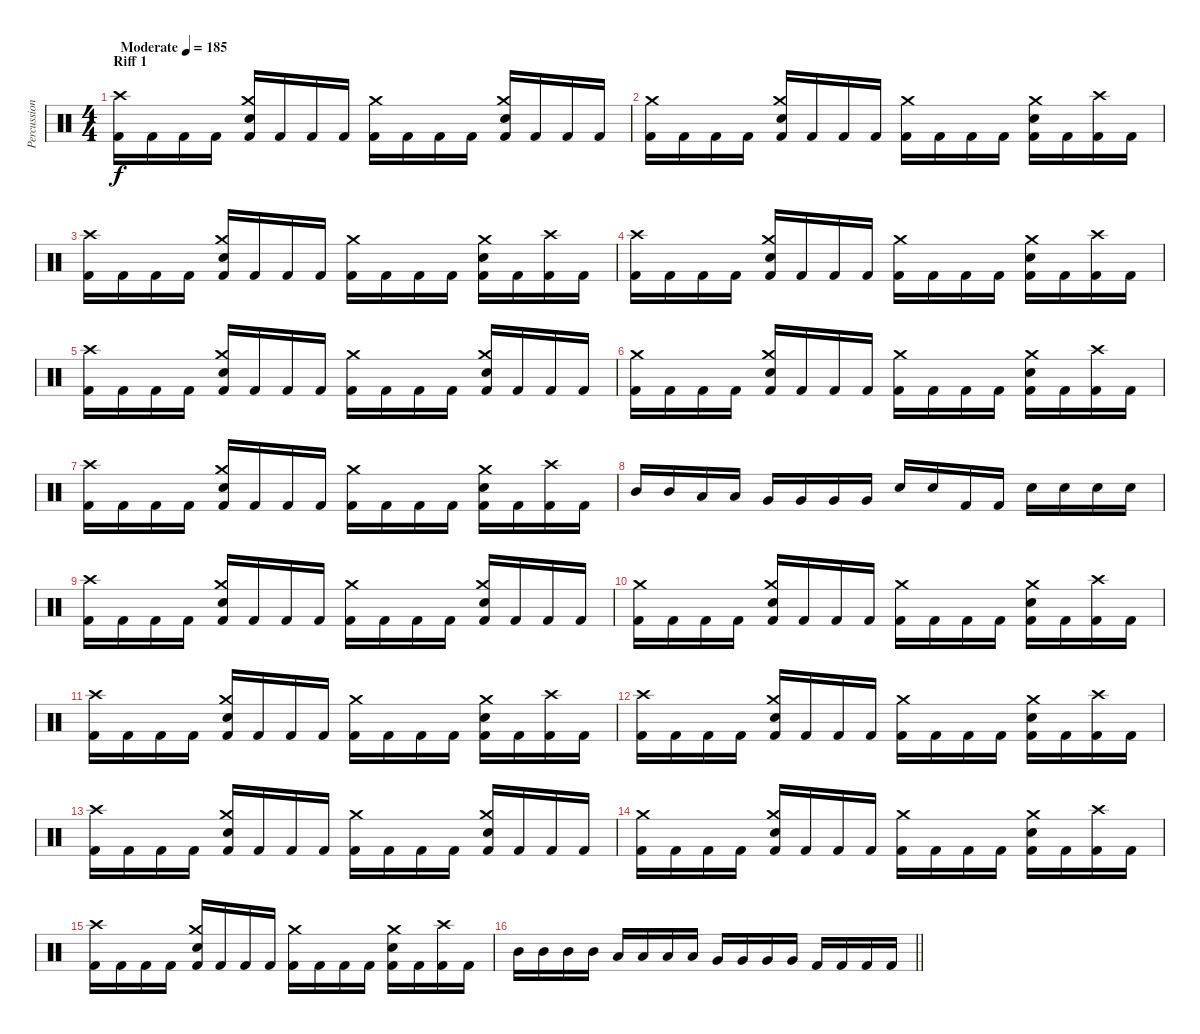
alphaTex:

\track ("Percussion" "Percussion") {instrument percussion}
\staff {score}
\articulation defaults
\ts (4 4)
\section ("" "Riff 1")
\tempo (185 "Moderate")
\clef neutral
\ks c
("Crash high (hit)" "Kick (hit) 2").16{dy f} "Kick (hit) 2".16 "Kick (hit) 2".16 "Kick (hit) 2".16 ("Crash medium (hit)" "Snare (hit) 2" "Kick (hit) 2").16 "Kick (hit) 2".16 "Kick (hit) 2".16 "Kick (hit) 2".16 ("Crash medium (hit)" "Kick (hit) 2").16 "Kick (hit) 2".16 "Kick (hit) 2".16 "Kick (hit) 2".16 ("Crash medium (hit)" "Snare (hit) 2" "Kick (hit) 2").16 "Kick (hit) 2".16 "Kick (hit) 2".16 "Kick (hit) 2".16 |
("Crash medium (hit)" "Kick (hit) 2").16 "Kick (hit) 2".16 "Kick (hit) 2".16 "Kick (hit) 2".16 ("Crash medium (hit)" "Snare (hit) 2" "Kick (hit) 2").16 "Kick (hit) 2".16 "Kick (hit) 2".16 "Kick (hit) 2".16 ("Crash medium (hit)" "Kick (hit) 2").16 "Kick (hit) 2".16 "Kick (hit) 2".16 "Kick (hit) 2".16 ("Crash medium (hit)" "Snare (hit) 2" "Kick (hit) 2").16 "Kick (hit) 2".16 ("Crash high (hit)" "Kick (hit) 2").16 "Kick (hit) 2".16 |
("Crash high (hit)" "Kick (hit) 2").16 "Kick (hit) 2".16 "Kick (hit) 2".16 "Kick (hit) 2".16 ("Crash medium (hit)" "Snare (hit) 2" "Kick (hit) 2").16 "Kick (hit) 2".16 "Kick (hit) 2".16 "Kick (hit) 2".16 ("Crash medium (hit)" "Kick (hit) 2").16 "Kick (hit) 2".16 "Kick (hit) 2".16 "Kick (hit) 2".16 ("Crash medium (hit)" "Snare (hit) 2" "Kick (hit) 2").16 "Kick (hit) 2".16 ("Crash high (hit)" "Kick (hit) 2").16 "Kick (hit) 2".16 |
("Crash high (hit)" "Kick (hit) 2").16 "Kick (hit) 2".16 "Kick (hit) 2".16 "Kick (hit) 2".16 ("Crash medium (hit)" "Snare (hit) 2" "Kick (hit) 2").16 "Kick (hit) 2".16 "Kick (hit) 2".16 "Kick (hit) 2".16 ("Crash medium (hit)" "Kick (hit) 2").16 "Kick (hit) 2".16 "Kick (hit) 2".16 "Kick (hit) 2".16 ("Crash medium (hit)" "Snare (hit) 2" "Kick (hit) 2").16 "Kick (hit) 2".16 ("Crash high (hit)" "Kick (hit) 2").16 "Kick (hit) 2".16 |
("Crash high (hit)" "Kick (hit) 2").16 "Kick (hit) 2".16 "Kick (hit) 2".16 "Kick (hit) 2".16 ("Crash medium (hit)" "Snare (hit) 2" "Kick (hit) 2").16 "Kick (hit) 2".16 "Kick (hit) 2".16 "Kick (hit) 2".16 ("Crash medium (hit)" "Kick (hit) 2").16 "Kick (hit) 2".16 "Kick (hit) 2".16 "Kick (hit) 2".16 ("Crash medium (hit)" "Snare (hit) 2" "Kick (hit) 2").16 "Kick (hit) 2".16 "Kick (hit) 2".16 "Kick (hit) 2".16 |
("Crash medium (hit)" "Kick (hit) 2").16 "Kick (hit) 2".16 "Kick (hit) 2".16 "Kick (hit) 2".16 ("Crash medium (hit)" "Snare (hit) 2" "Kick (hit) 2").16 "Kick (hit) 2".16 "Kick (hit) 2".16 "Kick (hit) 2".16 ("Crash medium (hit)" "Kick (hit) 2").16 "Kick (hit) 2".16 "Kick (hit) 2".16 "Kick (hit) 2".16 ("Crash medium (hit)" "Snare (hit) 2" "Kick (hit) 2").16 "Kick (hit) 2".16 ("Crash high (hit)" "Kick (hit) 2").16 "Kick (hit) 2".16 |
("Crash high (hit)" "Kick (hit) 2").16 "Kick (hit) 2".16 "Kick (hit) 2".16 "Kick (hit) 2".16 ("Crash medium (hit)" "Snare (hit) 2" "Kick (hit) 2").16 "Kick (hit) 2".16 "Kick (hit) 2".16 "Kick (hit) 2".16 ("Crash medium (hit)" "Kick (hit) 2").16 "Kick (hit) 2".16 "Kick (hit) 2".16 "Kick (hit) 2".16 ("Crash medium (hit)" "Snare (hit) 2" "Kick (hit) 2").16 "Kick (hit) 2".16 ("Crash high (hit)" "Kick (hit) 2").16 "Kick (hit) 2".16 |
"Mid Tom (hit)".16 "Mid Tom (hit)".16 "Low Tom (hit)".16 "Low Tom (hit)".16 "Very Low Tom (hit)".16 "Very Low Tom (hit)".16 "Very Low Tom (hit)".16 "Very Low Tom (hit)".16 "Snare (hit) 2".16 "Snare (hit) 2".16 "Kick (hit) 2".16 "Kick (hit) 2".16 "Snare (hit) 2".16 "Snare (hit) 2".16 "Snare (hit) 2".16 "Snare (hit) 2".16 |
("Crash high (hit)" "Kick (hit) 2").16 "Kick (hit) 2".16 "Kick (hit) 2".16 "Kick (hit) 2".16 ("Crash medium (hit)" "Snare (hit) 2" "Kick (hit) 2").16 "Kick (hit) 2".16 "Kick (hit) 2".16 "Kick (hit) 2".16 ("Crash medium (hit)" "Kick (hit) 2").16 "Kick (hit) 2".16 "Kick (hit) 2".16 "Kick (hit) 2".16 ("Crash medium (hit)" "Snare (hit) 2" "Kick (hit) 2").16 "Kick (hit) 2".16 "Kick (hit) 2".16 "Kick (hit) 2".16 |
("Crash medium (hit)" "Kick (hit) 2").16 "Kick (hit) 2".16 "Kick (hit) 2".16 "Kick (hit) 2".16 ("Crash medium (hit)" "Snare (hit) 2" "Kick (hit) 2").16 "Kick (hit) 2".16 "Kick (hit) 2".16 "Kick (hit) 2".16 ("Crash medium (hit)" "Kick (hit) 2").16 "Kick (hit) 2".16 "Kick (hit) 2".16 "Kick (hit) 2".16 ("Crash medium (hit)" "Snare (hit) 2" "Kick (hit) 2").16 "Kick (hit) 2".16 ("Crash high (hit)" "Kick (hit) 2").16 "Kick (hit) 2".16 |
("Crash high (hit)" "Kick (hit) 2").16 "Kick (hit) 2".16 "Kick (hit) 2".16 "Kick (hit) 2".16 ("Crash medium (hit)" "Snare (hit) 2" "Kick (hit) 2").16 "Kick (hit) 2".16 "Kick (hit) 2".16 "Kick (hit) 2".16 ("Crash medium (hit)" "Kick (hit) 2").16 "Kick (hit) 2".16 "Kick (hit) 2".16 "Kick (hit) 2".16 ("Crash medium (hit)" "Snare (hit) 2" "Kick (hit) 2").16 "Kick (hit) 2".16 ("Crash high (hit)" "Kick (hit) 2").16 "Kick (hit) 2".16 |
("Crash high (hit)" "Kick (hit) 2").16 "Kick (hit) 2".16 "Kick (hit) 2".16 "Kick (hit) 2".16 ("Crash medium (hit)" "Snare (hit) 2" "Kick (hit) 2").16 "Kick (hit) 2".16 "Kick (hit) 2".16 "Kick (hit) 2".16 ("Crash medium (hit)" "Kick (hit) 2").16 "Kick (hit) 2".16 "Kick (hit) 2".16 "Kick (hit) 2".16 ("Crash medium (hit)" "Snare (hit) 2" "Kick (hit) 2").16 "Kick (hit) 2".16 ("Crash high (hit)" "Kick (hit) 2").16 "Kick (hit) 2".16 |
("Crash high (hit)" "Kick (hit) 2").16 "Kick (hit) 2".16 "Kick (hit) 2".16 "Kick (hit) 2".16 ("Crash medium (hit)" "Snare (hit) 2" "Kick (hit) 2").16 "Kick (hit) 2".16 "Kick (hit) 2".16 "Kick (hit) 2".16 ("Crash medium (hit)" "Kick (hit) 2").16 "Kick (hit) 2".16 "Kick (hit) 2".16 "Kick (hit) 2".16 ("Crash medium (hit)" "Snare (hit) 2" "Kick (hit) 2").16 "Kick (hit) 2".16 "Kick (hit) 2".16 "Kick (hit) 2".16 |
("Crash medium (hit)" "Kick (hit) 2").16 "Kick (hit) 2".16 "Kick (hit) 2".16 "Kick (hit) 2".16 ("Crash medium (hit)" "Snare (hit) 2" "Kick (hit) 2").16 "Kick (hit) 2".16 "Kick (hit) 2".16 "Kick (hit) 2".16 ("Crash medium (hit)" "Kick (hit) 2").16 "Kick (hit) 2".16 "Kick (hit) 2".16 "Kick (hit) 2".16 ("Crash medium (hit)" "Snare (hit) 2" "Kick (hit) 2").16 "Kick (hit) 2".16 ("Crash high (hit)" "Kick (hit) 2").16 "Kick (hit) 2".16 |
("Crash high (hit)" "Kick (hit) 2").16 "Kick (hit) 2".16 "Kick (hit) 2".16 "Kick (hit) 2".16 ("Crash medium (hit)" "Snare (hit) 2" "Kick (hit) 2").16 "Kick (hit) 2".16 "Kick (hit) 2".16 "Kick (hit) 2".16 ("Crash medium (hit)" "Kick (hit) 2").16 "Kick (hit) 2".16 "Kick (hit) 2".16 "Kick (hit) 2".16 ("Crash medium (hit)" "Snare (hit) 2" "Kick (hit) 2").16 "Kick (hit) 2".16 ("Crash high (hit)" "Kick (hit) 2").16 "Kick (hit) 2".16 |
\barLineRight lightlight "Mid Tom (hit)".16 "Mid Tom (hit)".16 "Mid Tom (hit)".16 "Mid Tom (hit)".16 "Low Tom (hit)".16 "Low Tom (hit)".16 "Low Tom (hit)".16 "Low Tom (hit)".16 "Very Low Tom (hit)".16 "Very Low Tom (hit)".16 "Very Low Tom (hit)".16 "Very Low Tom (hit)".16 "Kick (hit) 2".16 "Kick (hit) 2".16 "Kick (hit) 2".16 "Kick (hit) 2".16
